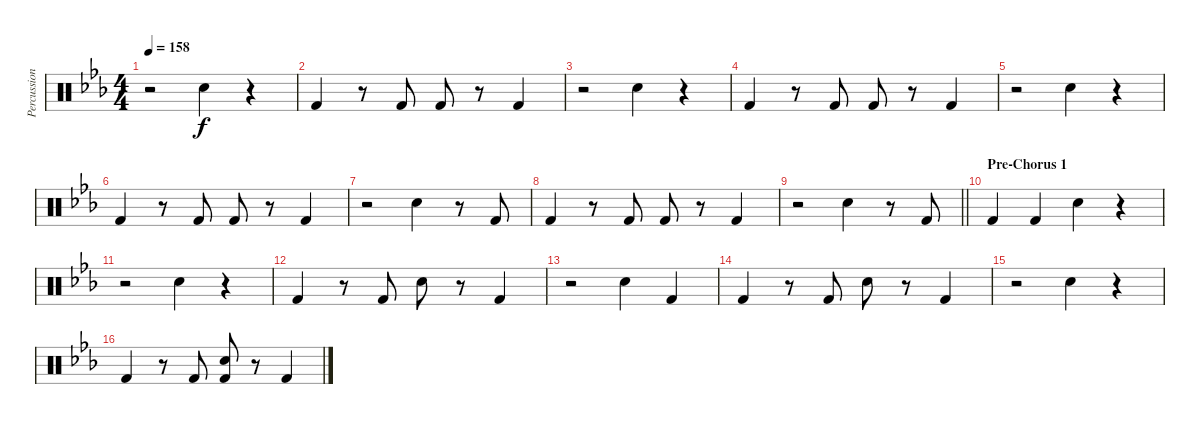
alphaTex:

\track ("Percussion" "Percussion") {instrument percussion}
\staff {score}
\articulation defaults
\ts (4 4)
\tempo 158
\clef neutral
\ks eb
r.2{dy f} "Snare (hit) 2".4 r.4 |
"Kick (hit) 2".4 r.8 "Kick (hit) 2".8 "Kick (hit) 2".8 r.8 "Kick (hit) 2".4 |
r.2 "Snare (hit) 2".4 r.4 |
"Kick (hit) 2".4 r.8 "Kick (hit) 2".8 "Kick (hit) 2".8 r.8 "Kick (hit) 2".4 |
r.2 "Snare (hit) 2".4 r.4 |
"Kick (hit) 2".4 r.8 "Kick (hit) 2".8 "Kick (hit) 2".8 r.8 "Kick (hit) 2".4 |
r.2 "Snare (hit) 2".4 r.8 "Kick (hit) 2".8 |
"Kick (hit) 2".4 r.8 "Kick (hit) 2".8 "Kick (hit) 2".8 r.8 "Kick (hit) 2".4 |
\barLineRight lightlight
r.2 "Snare (hit) 2".4 r.8 "Kick (hit) 2".8 |
\section ("" "Pre-Chorus 1")
"Kick (hit) 2".4 "Kick (hit) 2".4 "Snare (hit) 2".4 r.4 |
r.2 "Snare (hit) 2".4 r.4 |
"Kick (hit) 2".4 r.8 "Kick (hit) 2".8 "Snare (hit) 2".8 r.8 "Kick (hit) 2".4 |
r.2 "Snare (hit) 2".4 "Kick (hit) 2".4 |
"Kick (hit) 2".4 r.8 "Kick (hit) 2".8 "Snare (hit) 2".8 r.8 "Kick (hit) 2".4 |
r.2 "Snare (hit) 2".4 r.4 |
"Kick (hit) 2".4 r.8 "Kick (hit) 2".8 ("Kick (hit) 2" "Snare (hit) 2").8 r.8 "Kick (hit) 2".4
